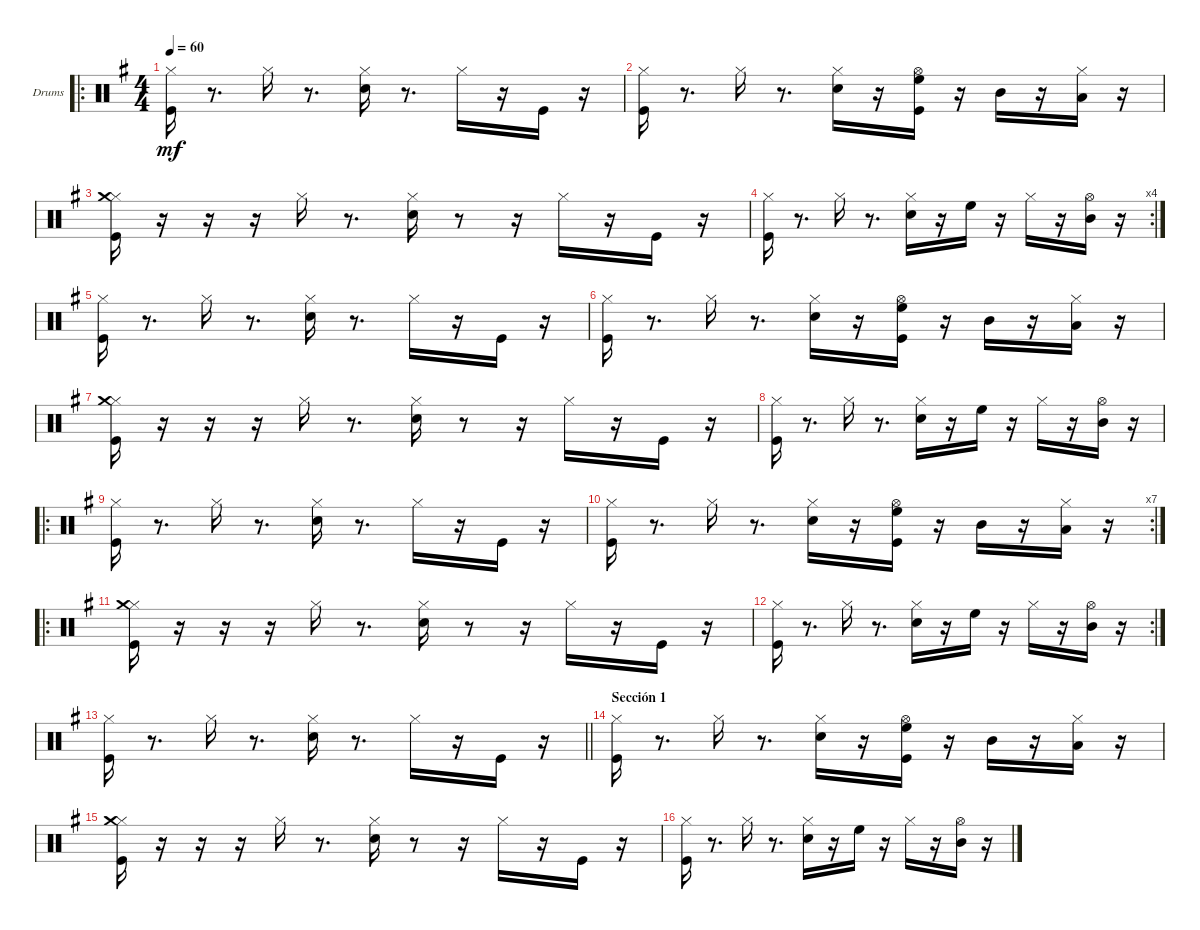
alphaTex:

\bracketExtendMode groupsimilarinstruments
\firstSystemTrackNameOrientation horizontal
\otherSystemsTrackNameOrientation horizontal
\track ("Drumkit" "Drums") {instrument percussion}
\staff {score}
\articulation defaults
\ro
\ts (4 4)
\tempo 60
\clef neutral
\scale
0.377049
\ks g
("Kick (hit)" "Hi-Hat (closed)").16{dy mf} r.8{d} "Hi-Hat (closed)".16 r.8{d} ("Hi-Hat (closed)" "Snare (hit) 2").16 r.8{d} "Hi-Hat (closed)".16 r.16 "Kick (hit)".16 r.16 |
\scale
0.311475 ("Kick (hit)" "Hi-Hat (closed)").16 r.8{d} "Hi-Hat (closed)".16 r.8{d} ("Hi-Hat (closed)" "Snare (hit) 2").16 r.16 ("Kick (hit)" "Hi-Hat (open)" "High Floor Tom (hit)").16 r.16 "Mid Tom (hit)".16 r.16 ("Hi-Hat (closed)" "Low Tom (hit)").16 r.16 |
\scale
0.322034 ("Kick (hit)" "Hi-Hat (closed)" "Crash medium (hit)").16 r.16 r.16 r.16 "Hi-Hat (closed)".16 r.8{d} ("Hi-Hat (closed)" "Snare (hit) 2").16 r.8 r.16 "Hi-Hat (closed)".16 r.16 "Kick (hit)".16 r.16 |
\rc 4
\scale
0.355932 ("Kick (hit)" "Hi-Hat (closed)").16 r.8{d} "Hi-Hat (closed)".16 r.8{d} ("Hi-Hat (closed)" "Snare (hit) 2").16 r.16 "High Floor Tom (hit)".16 r.16 "Hi-Hat (closed)".16 r.16 ("Hi-Hat (open)" "Mid Tom (hit)").16 r.16 |
\scale
0.322034 ("Kick (hit)" "Hi-Hat (closed)").16 r.8{d} "Hi-Hat (closed)".16 r.8{d} ("Hi-Hat (closed)" "Snare (hit) 2").16 r.8{d} "Hi-Hat (closed)".16 r.16 "Kick (hit)".16 r.16 |
\scale
0.333333 ("Kick (hit)" "Hi-Hat (closed)").16 r.8{d} "Hi-Hat (closed)".16 r.8{d} ("Hi-Hat (closed)" "Snare (hit) 2").16 r.16 ("Kick (hit)" "Hi-Hat (open)" "High Floor Tom (hit)").16 r.16 "Mid Tom (hit)".16 r.16 ("Hi-Hat (closed)" "Low Tom (hit)").16 r.16 |
\scale
0.333333 ("Kick (hit)" "Hi-Hat (closed)" "Crash medium (hit)").16 r.16 r.16 r.16 "Hi-Hat (closed)".16 r.8{d} ("Hi-Hat (closed)" "Snare (hit) 2").16 r.8 r.16 "Hi-Hat (closed)".16 r.16 "Kick (hit)".16 r.16 |
\scale
0.333333 ("Kick (hit)" "Hi-Hat (closed)").16 r.8{d} "Hi-Hat (closed)".16 r.8{d} ("Hi-Hat (closed)" "Snare (hit) 2").16 r.16 "High Floor Tom (hit)".16 r.16 "Hi-Hat (closed)".16 r.16 ("Hi-Hat (open)" "Mid Tom (hit)").16 r.16 |
\ro
\scale
0.343284 ("Kick (hit)" "Hi-Hat (closed)").16 r.8{d} "Hi-Hat (closed)".16 r.8{d} ("Hi-Hat (closed)" "Snare (hit) 2").16 r.8{d} "Hi-Hat (closed)".16 r.16 "Kick (hit)".16 r.16 |
\rc 7
\scale
0.313433 ("Kick (hit)" "Hi-Hat (closed)").16 r.8{d} "Hi-Hat (closed)".16 r.8{d} ("Hi-Hat (closed)" "Snare (hit) 2").16 r.16 ("Kick (hit)" "Hi-Hat (open)" "High Floor Tom (hit)").16 r.16 "Mid Tom (hit)".16 r.16 ("Hi-Hat (closed)" "Low Tom (hit)").16 r.16 |
\ro
\scale
0.343284 ("Kick (hit)" "Hi-Hat (closed)" "Crash medium (hit)").16 r.16 r.16 r.16 "Hi-Hat (closed)".16 r.8{d} ("Hi-Hat (closed)" "Snare (hit) 2").16 r.8 r.16 "Hi-Hat (closed)".16 r.16 "Kick (hit)".16 r.16 |
\rc 2
\scale
0.355932 ("Kick (hit)" "Hi-Hat (closed)").16 r.8{d} "Hi-Hat (closed)".16 r.8{d} ("Hi-Hat (closed)" "Snare (hit) 2").16 r.16 "High Floor Tom (hit)".16 r.16 "Hi-Hat (closed)".16 r.16 ("Hi-Hat (open)" "Mid Tom (hit)").16 r.16 |
\scale
0.322034
\barLineRight lightlight
("Kick (hit)" "Hi-Hat (closed)").16 r.8{d} "Hi-Hat (closed)".16 r.8{d} ("Hi-Hat (closed)" "Snare (hit) 2").16 r.8{d} "Hi-Hat (closed)".16 r.16 "Kick (hit)".16 r.16 |
\section ("" "Sección 1")
\scale
0.322034 ("Kick (hit)" "Hi-Hat (closed)").16 r.8{d} "Hi-Hat (closed)".16 r.8{d} ("Hi-Hat (closed)" "Snare (hit) 2").16 r.16 ("Kick (hit)" "Hi-Hat (open)" "High Floor Tom (hit)").16 r.16 "Mid Tom (hit)".16 r.16 ("Hi-Hat (closed)" "Low Tom (hit)").16 r.16 |
\scale
0.333333 ("Kick (hit)" "Hi-Hat (closed)" "Crash medium (hit)").16 r.16 r.16 r.16 "Hi-Hat (closed)".16 r.8{d} ("Hi-Hat (closed)" "Snare (hit) 2").16 r.8 r.16 "Hi-Hat (closed)".16 r.16 "Kick (hit)".16 r.16 |
\scale
0.333333 ("Kick (hit)" "Hi-Hat (closed)").16 r.8{d} "Hi-Hat (closed)".16 r.8{d} ("Hi-Hat (closed)" "Snare (hit) 2").16 r.16 "High Floor Tom (hit)".16 r.16 "Hi-Hat (closed)".16 r.16 ("Hi-Hat (open)" "Mid Tom (hit)").16 r.16
